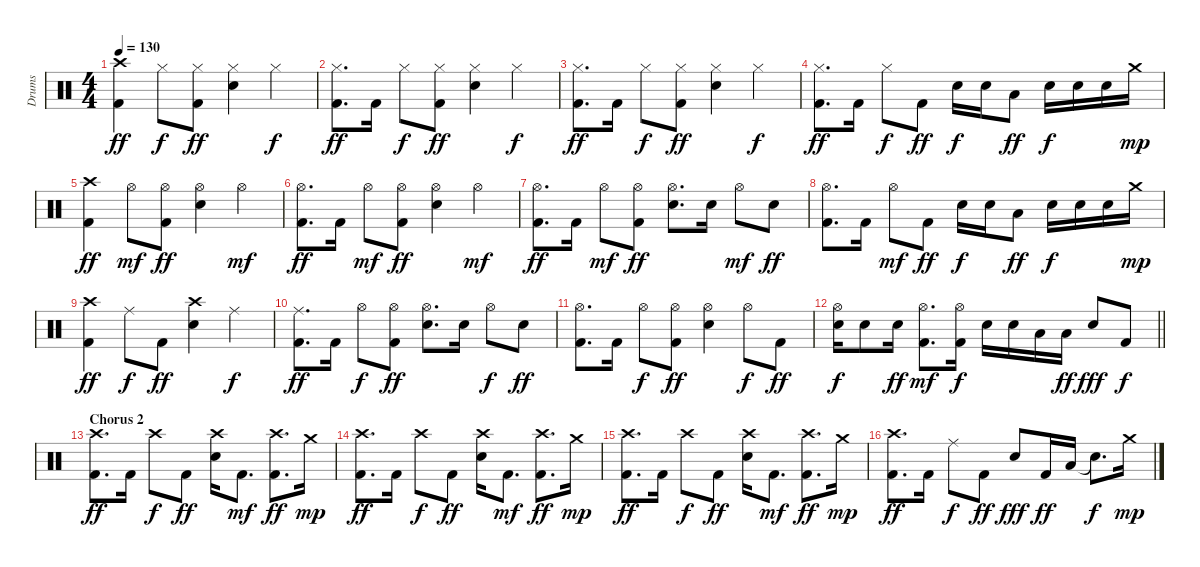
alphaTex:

\track ("Drums" "Drums") {instrument percussion}
\staff {score}
\articulation defaults
\ts (4 4)
\tempo 130
\clef neutral
\ks c
("Crash high (hit)" "Kick (hit) 2").4{dy ff} "Hi-Hat (closed)".8{dy f} ("Hi-Hat (closed)" "Kick (hit) 2").8{dy ff} ("Hi-Hat (closed)" "Electric Snare (hit)").4 "Hi-Hat (closed)".4{dy f} |
("Hi-Hat (closed)" "Kick (hit) 2").8{d dy ff} "Kick (hit) 2".16 "Hi-Hat (closed)".8{dy f} ("Hi-Hat (closed)" "Kick (hit) 2").8{dy ff} ("Hi-Hat (closed)" "Electric Snare (hit)").4 "Hi-Hat (closed)".4{dy f} |
("Hi-Hat (closed)" "Kick (hit) 2").8{d dy ff} "Kick (hit) 2".16 "Hi-Hat (closed)".8{dy f} ("Hi-Hat (closed)" "Kick (hit) 2").8{dy ff} ("Hi-Hat (closed)" "Electric Snare (hit)").4 "Hi-Hat (closed)".4{dy f} |
("Hi-Hat (closed)" "Kick (hit) 2").8{d dy ff} "Kick (hit) 2".16 "Hi-Hat (closed)".8{dy f} "Kick (hit) 2".8{dy ff} "Electric Snare (hit)".16{dy f} "Electric Snare (hit)".16 "Low Tom (hit)".8{dy ff} "Electric Snare (hit)".16{dy f} "Electric Snare (hit)".16 "Electric Snare (hit)".16 "Crash medium (hit)".16{dy mp} |
("Crash high (hit)" "Kick (hit) 2").4{dy ff} "Hi-Hat (open)".8{dy mf} ("Hi-Hat (open)" "Kick (hit) 2").8{dy ff} ("Hi-Hat (open)" "Electric Snare (hit)").4 "Hi-Hat (open)".4{dy mf} |
("Hi-Hat (open)" "Kick (hit) 2").8{d dy ff} "Kick (hit) 2".16 "Hi-Hat (open)".8{dy mf} ("Hi-Hat (open)" "Kick (hit) 2").8{dy ff} ("Hi-Hat (open)" "Electric Snare (hit)").4 "Hi-Hat (open)".4{dy mf} |
("Hi-Hat (open)" "Kick (hit) 2").8{d dy ff} "Kick (hit) 2".16 "Hi-Hat (open)".8{dy mf} ("Hi-Hat (open)" "Kick (hit) 2").8{dy ff} ("Hi-Hat (open)" "Electric Snare (hit)").8{d} "Electric Snare (hit)".16 "Hi-Hat (open)".8{dy mf} "Electric Snare (hit)".8{dy ff} |
("Hi-Hat (open)" "Kick (hit) 2").8{d} "Kick (hit) 2".16 "Hi-Hat (open)".8{dy mf} "Kick (hit) 2".8{dy ff} "Electric Snare (hit)".16{dy f} "Electric Snare (hit)".16 "Low Tom (hit)".8{dy ff} "Electric Snare (hit)".16{dy f} "Electric Snare (hit)".16 "Electric Snare (hit)".16 "Crash medium (hit)".16{dy mp} |
("Crash high (hit)" "Kick (hit) 2").4{dy ff} "Ride (middle)".8{dy f} "Kick (hit) 2".8{dy ff} ("Crash high (hit)" "Electric Snare (hit)").4 "Ride (middle)".4{dy f} |
("Ride (middle)" "Kick (hit) 2").8{d dy ff} "Kick (hit) 2".16 "Hi-Hat (open)".8{dy f} ("Hi-Hat (open)" "Kick (hit) 2").8{dy ff} ("Hi-Hat (open)" "Electric Snare (hit)").8{d} "Electric Snare (hit)".16 "Hi-Hat (open)".8{dy f} "Electric Snare (hit)".8{dy ff} |
("Hi-Hat (open)" "Kick (hit) 2").8{d} "Kick (hit) 2".16 "Hi-Hat (open)".8{dy f} ("Hi-Hat (open)" "Kick (hit) 2").8{dy ff} ("Hi-Hat (open)" "Electric Snare (hit)").4 "Hi-Hat (open)".8{dy f} "Kick (hit) 2".8{dy ff} |
\barLineRight lightlight
("Hi-Hat (open)" "Electric Snare (hit)").16{dy f} "Electric Snare (hit)".8 "Electric Snare (hit)".16{dy ff} ("Hi-Hat (open)" "Kick (hit) 2").8{d dy mf} ("Hi-Hat (open)" "Kick (hit) 2").16{dy f} "Electric Snare (hit)".16 "Electric Snare (hit)".16 "Low Tom (hit)".16 "Low Tom (hit)".16{dy ff} "Electric Snare (hit)".8{dy fff} "Kick (hit) 2".8{dy f} |
\section ("" "Chorus 2")
("Crash high (hit)" "Kick (hit) 2").8{d dy ff} "Kick (hit) 2".16 "Crash high (hit)".8{dy f} "Kick (hit) 2".8{dy ff} ("Crash high (hit)" "Electric Snare (hit)").16 "Kick (hit) 2".8{d dy mf} ("Crash high (hit)" "Kick (hit) 2").8{d dy ff} "Crash medium (hit)".16{dy mp} |
("Crash high (hit)" "Kick (hit) 2").8{d dy ff} "Kick (hit) 2".16 "Crash high (hit)".8{dy f} "Kick (hit) 2".8{dy ff} ("Crash high (hit)" "Electric Snare (hit)").16 "Kick (hit) 2".8{d dy mf} ("Crash high (hit)" "Kick (hit) 2").8{d dy ff} "Crash medium (hit)".16{dy mp} |
("Crash high (hit)" "Kick (hit) 2").8{d dy ff} "Kick (hit) 2".16 "Crash high (hit)".8{dy f} "Kick (hit) 2".8{dy ff} ("Crash high (hit)" "Electric Snare (hit)").16 "Kick (hit) 2".8{d dy mf} ("Crash high (hit)" "Kick (hit) 2").8{d dy ff} "Crash medium (hit)".16{dy mp} |
("Crash high (hit)" "Kick (hit) 2").8{d dy ff} "Kick (hit) 2".16 "Ride (middle)".8{dy f} "Kick (hit) 2".8{dy ff} "Electric Snare (hit)".8{dy fff} "Kick (hit) 2".16{dy ff} "Low Tom (hit)".16 "Snare (hit)"{t}.8{d dy f} "Crash medium (hit)".16{dy mp}
